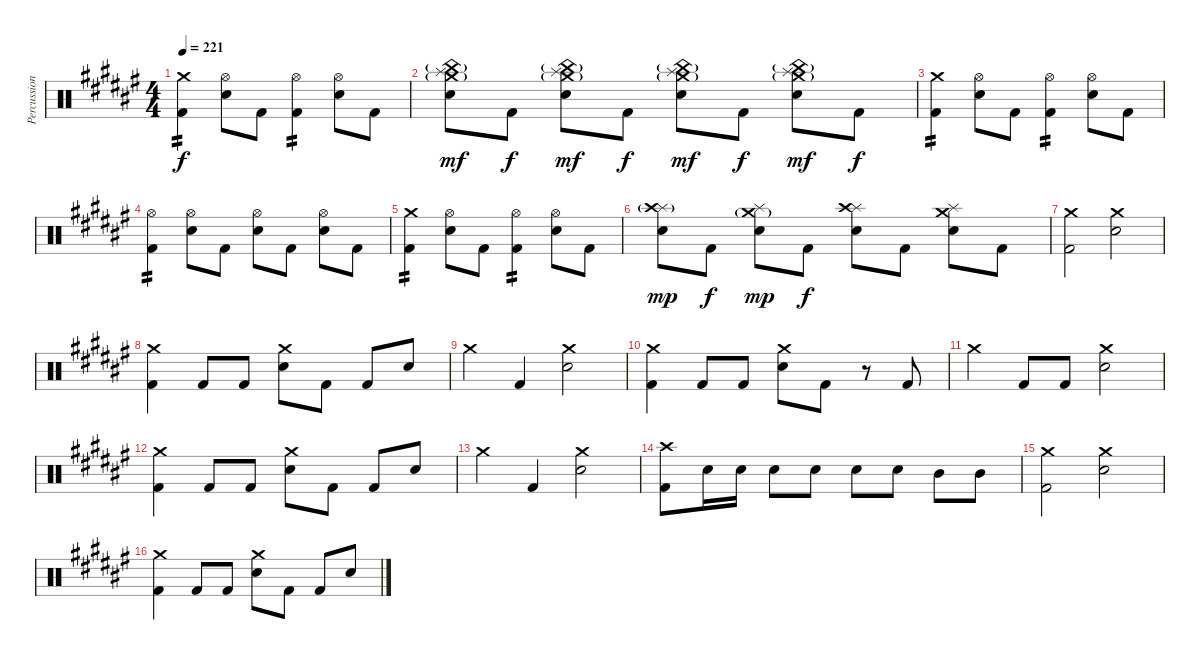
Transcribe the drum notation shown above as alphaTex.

\track ("Percussions" "Percussion") {instrument percussion}
\staff {score}
\articulation defaults
\ts (4 4)
\tempo 221
\clef neutral
\ks d#minor
("Crash medium (hit)" "Kick (hit) 2").4{tp 2 dy f} ("Hi-Hat (open)" "Electric Snare (hit)").8 "Kick (hit) 2".8 ("Hi-Hat (open)" "Kick (hit) 2").4{tp 2} ("Hi-Hat (open)" "Electric Snare (hit)").8 "Kick (hit) 2".8 |
("Splash (hit)" "Crash medium (hit)"{g} "China (hit)"{g} "Electric Snare (hit)").8{dy mf} "Kick (hit) 2".8{dy f} ("Splash (hit)" "Crash medium (hit)"{g} "China (hit)"{g} "Electric Snare (hit)").8{dy mf} "Kick (hit) 2".8{dy f} ("Splash (hit)" "Crash medium (hit)"{g} "China (hit)"{g} "Electric Snare (hit)").8{dy mf} "Kick (hit) 2".8{dy f} ("Splash (hit)" "Crash medium (hit)"{g} "China (hit)"{g} "Electric Snare (hit)").8{dy mf} "Kick (hit) 2".8{dy f} |
("Crash medium (hit)" "Kick (hit) 2").4{tp 2} ("Hi-Hat (open)" "Electric Snare (hit)").8 "Kick (hit) 2".8 ("Hi-Hat (open)" "Kick (hit) 2").4{tp 2} ("Hi-Hat (open)" "Electric Snare (hit)").8 "Kick (hit) 2".8 |
("Hi-Hat (open)" "Kick (hit) 2").4{tp 2} ("Hi-Hat (open)" "Electric Snare (hit)").8 "Kick (hit) 2".8 ("Hi-Hat (open)" "Electric Snare (hit)").8 "Kick (hit) 2".8 ("Hi-Hat (open)" "Electric Snare (hit)").8 "Kick (hit) 2".8 |
("Crash medium (hit)" "Kick (hit) 2").4{tp 2} ("Hi-Hat (open)" "Electric Snare (hit)").8 "Kick (hit) 2".8 ("Hi-Hat (open)" "Kick (hit) 2").4{tp 2} ("Hi-Hat (open)" "Electric Snare (hit)").8 "Kick (hit) 2".8 |
("Splash (hit)" "Crash high (hit)"{g} "Electric Snare (hit)").8{dy mp} "Kick (hit) 2".8{dy f} ("Splash (hit)" "Crash medium (hit)"{g} "Electric Snare (hit)").8{dy mp} "Kick (hit) 2".8{dy f} ("Splash (hit)" "Crash high (hit)" "Electric Snare (hit)").8 "Kick (hit) 2".8 ("Splash (hit)" "Crash medium (hit)" "Electric Snare (hit)").8 "Kick (hit) 2".8 |
("Crash medium (hit)" "Kick (hit) 2").2 ("Crash medium (hit)" "Electric Snare (hit)").2 |
("Crash medium (hit)" "Kick (hit) 2").4 "Kick (hit) 2".8 "Kick (hit) 2".8 ("Crash medium (hit)" "Electric Snare (hit)").8 "Kick (hit) 2".8 "Kick (hit) 2".8 "Electric Snare (hit)".8 |
"Crash medium (hit)".4 "Kick (hit) 2".4 ("Crash medium (hit)" "Electric Snare (hit)").2 |
("Crash medium (hit)" "Kick (hit) 2").4 "Kick (hit) 2".8 "Kick (hit) 2".8 ("Crash medium (hit)" "Electric Snare (hit)").8 "Kick (hit) 2".8 r.8 "Kick (hit) 2".8 |
"Crash medium (hit)".4 "Kick (hit) 2".8 "Kick (hit) 2".8 ("Crash medium (hit)" "Electric Snare (hit)").2 |
("Crash medium (hit)" "Kick (hit) 2").4 "Kick (hit) 2".8 "Kick (hit) 2".8 ("Crash medium (hit)" "Electric Snare (hit)").8 "Kick (hit) 2".8 "Kick (hit) 2".8 "Electric Snare (hit)".8 |
"Crash medium (hit)".4 "Kick (hit) 2".4 ("Crash medium (hit)" "Electric Snare (hit)").2 |
("Crash high (hit)" "Kick (hit) 2").8 "Electric Snare (hit)".16 "Electric Snare (hit)".16 "Electric Snare (hit)".8 "Electric Snare (hit)".8 "Electric Snare (hit)".8 "Electric Snare (hit)".8 "Mid Tom (hit)".8 "Mid Tom (hit)".8 |
("Crash medium (hit)" "Kick (hit) 2").2 ("Crash medium (hit)" "Electric Snare (hit)").2 |
("Crash medium (hit)" "Kick (hit) 2").4 "Kick (hit) 2".8 "Kick (hit) 2".8 ("Crash medium (hit)" "Electric Snare (hit)").8 "Kick (hit) 2".8 "Kick (hit) 2".8 "Electric Snare (hit)".8
